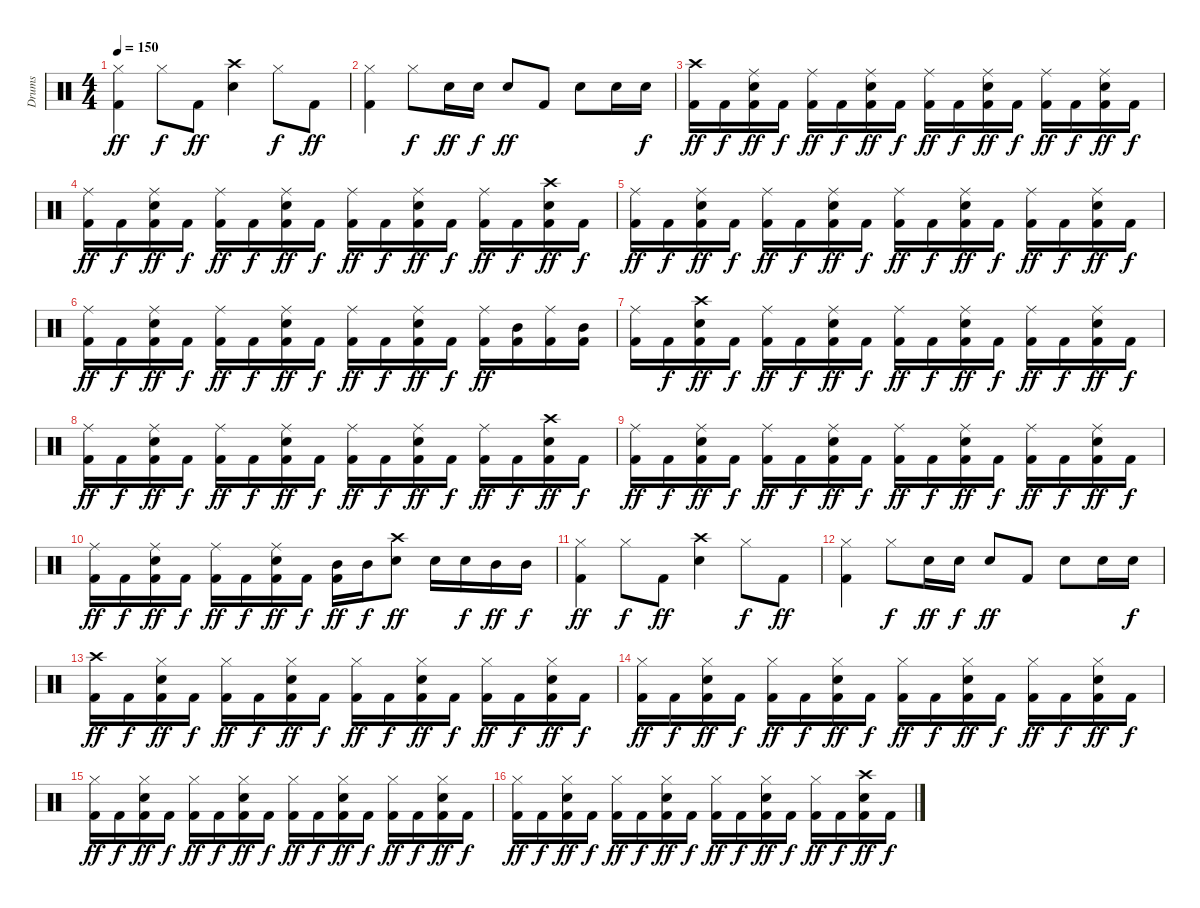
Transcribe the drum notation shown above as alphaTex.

\track ("Drums" "Drums") {instrument percussion}
\staff {score}
\articulation defaults
\ts (4 4)
\tempo 150
\clef neutral
\ks c
("Hi-Hat (closed)" "Kick (hit) 2").4{dy ff} "Hi-Hat (closed)".8{dy f} "Kick (hit) 2".8{dy ff} ("Crash high (hit)" "Snare (hit) 2").4 "Hi-Hat (closed)".8{dy f} "Kick (hit) 2".8{dy ff} |
("Hi-Hat (closed)" "Kick (hit) 2").4 "Hi-Hat (closed)".8{dy f} "Snare (hit) 2".16{dy ff} "Snare (hit) 2".16{dy f} "Snare (hit) 2".8{dy ff} "Kick (hit) 2".8 "Snare (hit) 2".8 "Snare (hit) 2".16 "Snare (hit) 2".16{dy f} |
("Crash high (hit)" "Kick (hit) 2").16{dy ff} "Kick (hit) 2".16{dy f} ("Ride (middle)" "Snare (hit) 2" "Kick (hit) 2").16{dy ff} "Kick (hit) 2".16{dy f} ("Ride (middle)" "Kick (hit) 2").16{dy ff} "Kick (hit) 2".16{dy f} ("Ride (middle)" "Snare (hit) 2" "Kick (hit) 2").16{dy ff} "Kick (hit) 2".16{dy f} ("Ride (middle)" "Kick (hit) 2").16{dy ff} "Kick (hit) 2".16{dy f} ("Ride (middle)" "Snare (hit) 2" "Kick (hit) 2").16{dy ff} "Kick (hit) 2".16{dy f} ("Ride (middle)" "Kick (hit) 2").16{dy ff} "Kick (hit) 2".16{dy f} ("Ride (middle)" "Snare (hit) 2" "Kick (hit) 2").16{dy ff} "Kick (hit) 2".16{dy f} |
("Ride (middle)" "Kick (hit) 2").16{dy ff} "Kick (hit) 2".16{dy f} ("Ride (middle)" "Snare (hit) 2" "Kick (hit) 2").16{dy ff} "Kick (hit) 2".16{dy f} ("Ride (middle)" "Kick (hit) 2").16{dy ff} "Kick (hit) 2".16{dy f} ("Ride (middle)" "Snare (hit) 2" "Kick (hit) 2").16{dy ff} "Kick (hit) 2".16{dy f} ("Ride (middle)" "Kick (hit) 2").16{dy ff} "Kick (hit) 2".16{dy f} ("Ride (middle)" "Snare (hit) 2" "Kick (hit) 2").16{dy ff} "Kick (hit) 2".16{dy f} ("Ride (middle)" "Kick (hit) 2").16{dy ff} "Kick (hit) 2".16{dy f} ("Kick (hit) 2" "Crash high (hit)" "Snare (hit) 2").16{dy ff} "Kick (hit) 2".16{dy f} |
("Ride (middle)" "Kick (hit) 2").16{dy ff} "Kick (hit) 2".16{dy f} ("Ride (middle)" "Snare (hit) 2" "Kick (hit) 2").16{dy ff} "Kick (hit) 2".16{dy f} ("Ride (middle)" "Kick (hit) 2").16{dy ff} "Kick (hit) 2".16{dy f} ("Ride (middle)" "Snare (hit) 2" "Kick (hit) 2").16{dy ff} "Kick (hit) 2".16{dy f} ("Ride (middle)" "Kick (hit) 2").16{dy ff} "Kick (hit) 2".16{dy f} ("Ride (middle)" "Snare (hit) 2" "Kick (hit) 2").16{dy ff} "Kick (hit) 2".16{dy f} ("Ride (middle)" "Kick (hit) 2").16{dy ff} "Kick (hit) 2".16{dy f} ("Ride (middle)" "Snare (hit) 2" "Kick (hit) 2").16{dy ff} "Kick (hit) 2".16{dy f} |
("Ride (middle)" "Kick (hit) 2").16{dy ff} "Kick (hit) 2".16{dy f} ("Ride (middle)" "Snare (hit) 2" "Kick (hit) 2").16{dy ff} "Kick (hit) 2".16{dy f} ("Ride (middle)" "Kick (hit) 2").16{dy ff} "Kick (hit) 2".16{dy f} ("Ride (middle)" "Snare (hit) 2" "Kick (hit) 2").16{dy ff} "Kick (hit) 2".16{dy f} ("Ride (middle)" "Kick (hit) 2").16{dy ff} "Kick (hit) 2".16{dy f} ("Ride (middle)" "Snare (hit) 2" "Kick (hit) 2").16{dy ff} "Kick (hit) 2".16{dy f} ("Ride (middle)" "Kick (hit) 2").16{dy ff} ("Mid Tom (hit)" "Kick (hit) 2").16 ("Ride (middle)" "Kick (hit) 2").16 ("Mid Tom (hit)" "Kick (hit) 2").16 |
("Ride (middle)" "Kick (hit) 2").16 "Kick (hit) 2".16{dy f} ("Kick (hit) 2" "Crash high (hit)" "Snare (hit) 2").16{dy ff} "Kick (hit) 2".16{dy f} ("Ride (middle)" "Kick (hit) 2").16{dy ff} "Kick (hit) 2".16{dy f} ("Ride (middle)" "Snare (hit) 2" "Kick (hit) 2").16{dy ff} "Kick (hit) 2".16{dy f} ("Ride (middle)" "Kick (hit) 2").16{dy ff} "Kick (hit) 2".16{dy f} ("Ride (middle)" "Snare (hit) 2" "Kick (hit) 2").16{dy ff} "Kick (hit) 2".16{dy f} ("Ride (middle)" "Kick (hit) 2").16{dy ff} "Kick (hit) 2".16{dy f} ("Ride (middle)" "Snare (hit) 2" "Kick (hit) 2").16{dy ff} "Kick (hit) 2".16{dy f} |
("Ride (middle)" "Kick (hit) 2").16{dy ff} "Kick (hit) 2".16{dy f} ("Ride (middle)" "Snare (hit) 2" "Kick (hit) 2").16{dy ff} "Kick (hit) 2".16{dy f} ("Ride (middle)" "Kick (hit) 2").16{dy ff} "Kick (hit) 2".16{dy f} ("Ride (middle)" "Snare (hit) 2" "Kick (hit) 2").16{dy ff} "Kick (hit) 2".16{dy f} ("Ride (middle)" "Kick (hit) 2").16{dy ff} "Kick (hit) 2".16{dy f} ("Ride (middle)" "Snare (hit) 2" "Kick (hit) 2").16{dy ff} "Kick (hit) 2".16{dy f} ("Ride (middle)" "Kick (hit) 2").16{dy ff} "Kick (hit) 2".16{dy f} ("Kick (hit) 2" "Crash high (hit)" "Snare (hit) 2").16{dy ff} "Kick (hit) 2".16{dy f} |
("Ride (middle)" "Kick (hit) 2").16{dy ff} "Kick (hit) 2".16{dy f} ("Ride (middle)" "Snare (hit) 2" "Kick (hit) 2").16{dy ff} "Kick (hit) 2".16{dy f} ("Ride (middle)" "Kick (hit) 2").16{dy ff} "Kick (hit) 2".16{dy f} ("Ride (middle)" "Snare (hit) 2" "Kick (hit) 2").16{dy ff} "Kick (hit) 2".16{dy f} ("Ride (middle)" "Kick (hit) 2").16{dy ff} "Kick (hit) 2".16{dy f} ("Ride (middle)" "Snare (hit) 2" "Kick (hit) 2").16{dy ff} "Kick (hit) 2".16{dy f} ("Ride (middle)" "Kick (hit) 2").16{dy ff} "Kick (hit) 2".16{dy f} ("Ride (middle)" "Snare (hit) 2" "Kick (hit) 2").16{dy ff} "Kick (hit) 2".16{dy f} |
("Ride (middle)" "Kick (hit) 2").16{dy ff} "Kick (hit) 2".16{dy f} ("Ride (middle)" "Snare (hit) 2" "Kick (hit) 2").16{dy ff} "Kick (hit) 2".16{dy f} ("Ride (middle)" "Kick (hit) 2").16{dy ff} "Kick (hit) 2".16{dy f} ("Ride (middle)" "Snare (hit) 2" "Kick (hit) 2").16{dy ff} "Kick (hit) 2".16{dy f} ("Mid Tom (hit)" "Kick (hit) 2").16{dy ff} "Mid Tom (hit)".16{dy f} ("Crash high (hit)" "Snare (hit) 2").8{dy ff} "Snare (hit) 2".16 "Snare (hit) 2".16{dy f} "Mid Tom (hit)".16{dy ff} "Mid Tom (hit)".16{dy f} |
("Hi-Hat (closed)" "Kick (hit) 2").4{dy ff} "Hi-Hat (closed)".8{dy f} "Kick (hit) 2".8{dy ff} ("Crash high (hit)" "Snare (hit) 2").4 "Hi-Hat (closed)".8{dy f} "Kick (hit) 2".8{dy ff} |
("Hi-Hat (closed)" "Kick (hit) 2").4 "Hi-Hat (closed)".8{dy f} "Snare (hit) 2".16{dy ff} "Snare (hit) 2".16{dy f} "Snare (hit) 2".8{dy ff} "Kick (hit) 2".8 "Snare (hit) 2".8 "Snare (hit) 2".16 "Snare (hit) 2".16{dy f} |
("Crash high (hit)" "Kick (hit) 2").16{dy ff} "Kick (hit) 2".16{dy f} ("Hi-Hat (closed)" "Snare (hit) 2" "Kick (hit) 2").16{dy ff} "Kick (hit) 2".16{dy f} ("Hi-Hat (closed)" "Kick (hit) 2").16{dy ff} "Kick (hit) 2".16{dy f} ("Hi-Hat (closed)" "Snare (hit) 2" "Kick (hit) 2").16{dy ff} "Kick (hit) 2".16{dy f} ("Hi-Hat (closed)" "Kick (hit) 2").16{dy ff} "Kick (hit) 2".16{dy f} ("Hi-Hat (closed)" "Snare (hit) 2" "Kick (hit) 2").16{dy ff} "Kick (hit) 2".16{dy f} ("Hi-Hat (closed)" "Kick (hit) 2").16{dy ff} "Kick (hit) 2".16{dy f} ("Hi-Hat (closed)" "Snare (hit) 2" "Kick (hit) 2").16{dy ff} "Kick (hit) 2".16{dy f} |
("Hi-Hat (closed)" "Kick (hit) 2").16{dy ff} "Kick (hit) 2".16{dy f} ("Hi-Hat (closed)" "Snare (hit) 2" "Kick (hit) 2").16{dy ff} "Kick (hit) 2".16{dy f} ("Hi-Hat (closed)" "Kick (hit) 2").16{dy ff} "Kick (hit) 2".16{dy f} ("Hi-Hat (closed)" "Snare (hit) 2" "Kick (hit) 2").16{dy ff} "Kick (hit) 2".16{dy f} ("Hi-Hat (closed)" "Kick (hit) 2").16{dy ff} "Kick (hit) 2".16{dy f} ("Hi-Hat (closed)" "Snare (hit) 2" "Kick (hit) 2").16{dy ff} "Kick (hit) 2".16{dy f} ("Hi-Hat (closed)" "Kick (hit) 2").16{dy ff} "Kick (hit) 2".16{dy f} ("Hi-Hat (closed)" "Snare (hit) 2" "Kick (hit) 2").16{dy ff} "Kick (hit) 2".16{dy f} |
("Hi-Hat (closed)" "Kick (hit) 2").16{dy ff} "Kick (hit) 2".16{dy f} ("Hi-Hat (closed)" "Snare (hit) 2" "Kick (hit) 2").16{dy ff} "Kick (hit) 2".16{dy f} ("Hi-Hat (closed)" "Kick (hit) 2").16{dy ff} "Kick (hit) 2".16{dy f} ("Hi-Hat (closed)" "Snare (hit) 2" "Kick (hit) 2").16{dy ff} "Kick (hit) 2".16{dy f} ("Hi-Hat (closed)" "Kick (hit) 2").16{dy ff} "Kick (hit) 2".16{dy f} ("Hi-Hat (closed)" "Snare (hit) 2" "Kick (hit) 2").16{dy ff} "Kick (hit) 2".16{dy f} ("Hi-Hat (closed)" "Kick (hit) 2").16{dy ff} "Kick (hit) 2".16{dy f} ("Hi-Hat (closed)" "Snare (hit) 2" "Kick (hit) 2").16{dy ff} "Kick (hit) 2".16{dy f} |
("Hi-Hat (closed)" "Kick (hit) 2").16{dy ff} "Kick (hit) 2".16{dy f} ("Hi-Hat (closed)" "Snare (hit) 2" "Kick (hit) 2").16{dy ff} "Kick (hit) 2".16{dy f} ("Hi-Hat (closed)" "Kick (hit) 2").16{dy ff} "Kick (hit) 2".16{dy f} ("Hi-Hat (closed)" "Snare (hit) 2" "Kick (hit) 2").16{dy ff} "Kick (hit) 2".16{dy f} ("Hi-Hat (closed)" "Kick (hit) 2").16{dy ff} "Kick (hit) 2".16{dy f} ("Hi-Hat (closed)" "Snare (hit) 2" "Kick (hit) 2").16{dy ff} "Kick (hit) 2".16{dy f} ("Hi-Hat (closed)" "Kick (hit) 2").16{dy ff} "Kick (hit) 2".16{dy f} ("Kick (hit) 2" "Crash high (hit)" "Snare (hit) 2").16{dy ff} "Kick (hit) 2".16{dy f}
